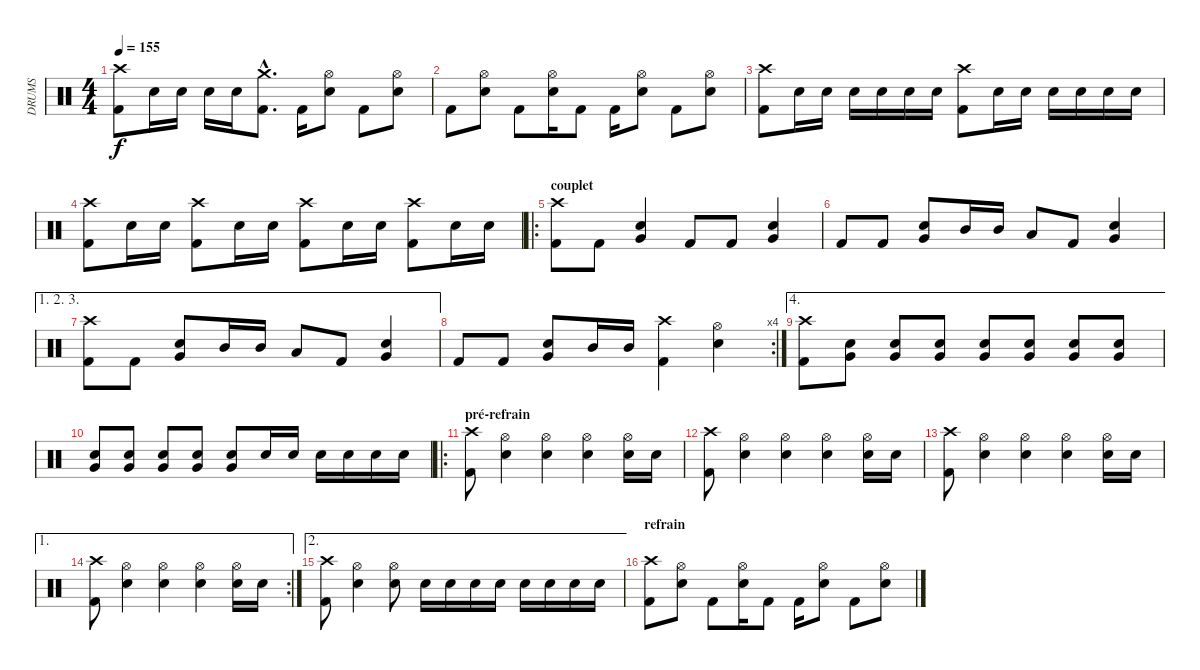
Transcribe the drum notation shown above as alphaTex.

\track ("DRUMS" "DRUMS") {instrument percussion}
\staff {score}
\articulation defaults
\ts (4 4)
\tempo 155
\clef neutral
\ks c
("Crash high (hit)" "Kick (hit) 2").8{dy f} "Electric Snare (hit)".16 "Electric Snare (hit)".16 "Electric Snare (hit)".16 "Electric Snare (hit)".16 ("Crash medium (hit)"{hac} "Kick (hit) 2"{hac}).8{d} "Kick (hit) 2".16 ("Hi-Hat (open)" "Electric Snare (hit)").8 "Kick (hit) 2".8 ("Hi-Hat (open)" "Electric Snare (hit)").8 |
"Kick (hit) 2".8 ("Hi-Hat (open)" "Electric Snare (hit)").8 "Kick (hit) 2".8 ("Hi-Hat (open)" "Electric Snare (hit)").16 "Kick (hit) 2".8 "Kick (hit) 2".16 ("Hi-Hat (open)" "Electric Snare (hit)").8 "Kick (hit) 2".8 ("Hi-Hat (open)" "Electric Snare (hit)").8 |
("Crash high (hit)" "Kick (hit) 2").8 "Electric Snare (hit)".16 "Electric Snare (hit)".16 "Electric Snare (hit)".16 "Electric Snare (hit)".16 "Electric Snare (hit)".16 "Electric Snare (hit)".16 ("Crash high (hit)" "Kick (hit) 2").8 "Electric Snare (hit)".16 "Electric Snare (hit)".16 "Electric Snare (hit)".16 "Electric Snare (hit)".16 "Electric Snare (hit)".16 "Electric Snare (hit)".16 |
("Crash high (hit)" "Kick (hit) 2").8 "Electric Snare (hit)".16 "Electric Snare (hit)".16 ("Crash high (hit)" "Kick (hit) 2").8 "Electric Snare (hit)".16 "Electric Snare (hit)".16 ("Crash high (hit)" "Kick (hit) 2").8 "Electric Snare (hit)".16 "Electric Snare (hit)".16 ("Crash high (hit)" "Kick (hit) 2").8 "Electric Snare (hit)".16 "Electric Snare (hit)".16 |
\ro
\section ("" "couplet")
("Crash high (hit)" "Kick (hit) 2").8 "Kick (hit) 2".8 ("Very Low Tom (hit)" "Electric Snare (hit)").4 "Kick (hit) 2".8 "Kick (hit) 2".8 ("Very Low Tom (hit)" "Electric Snare (hit)").4 |
"Kick (hit) 2".8 "Kick (hit) 2".8 ("Very Low Tom (hit)" "Electric Snare (hit)").8 "Mid Tom (hit)".16 "Mid Tom (hit)".16 "Low Tom (hit)".8 "Kick (hit) 2".8 ("Electric Snare (hit)" "Very Low Tom (hit)").4 |
\ae (1 2 3)
("Crash high (hit)" "Kick (hit) 2").8 "Kick (hit) 2".8 ("Very Low Tom (hit)" "Electric Snare (hit)").8 "Mid Tom (hit)".16 "Mid Tom (hit)".16 "Low Tom (hit)".8 "Kick (hit) 2".8 ("Very Low Tom (hit)" "Electric Snare (hit)").4 |
\rc 4 "Kick (hit) 2".8 "Kick (hit) 2".8
("Very Low Tom (hit)" "Electric Snare (hit)").8 "Mid Tom (hit)".16 "Mid Tom (hit)".16 ("Crash high (hit)" "Kick (hit) 2").4 ("Hi-Hat (open)" "Electric Snare (hit)").4 |
\ae 4
("Crash high (hit)" "Kick (hit) 2").8 ("Very Low Tom (hit)" "Electric Snare (hit)").8 ("Very Low Tom (hit)" "Electric Snare (hit)").8 ("Very Low Tom (hit)" "Electric Snare (hit)").8 ("Very Low Tom (hit)" "Electric Snare (hit)").8 ("Very Low Tom (hit)" "Electric Snare (hit)").8 ("Very Low Tom (hit)" "Electric Snare (hit)").8 ("Very Low Tom (hit)" "Electric Snare (hit)").8 |
("Very Low Tom (hit)" "Electric Snare (hit)").8 ("Very Low Tom (hit)" "Electric Snare (hit)").8 ("Very Low Tom (hit)" "Electric Snare (hit)").8 ("Very Low Tom (hit)" "Electric Snare (hit)").8 ("Very Low Tom (hit)" "Electric Snare (hit)").8 "Electric Snare (hit)".16 "Electric Snare (hit)".16 "Electric Snare (hit)".16 "Electric Snare (hit)".16 "Electric Snare (hit)".16 "Electric Snare (hit)".16 |
\ro
\section ("" "pré-refrain")
("Crash high (hit)" "Kick (hit) 2").8 ("Hi-Hat (open)" "Electric Snare (hit)").4 ("Hi-Hat (open)" "Electric Snare (hit)").4 ("Hi-Hat (open)" "Electric Snare (hit)").4 ("Hi-Hat (open)" "Electric Snare (hit)").16 "Electric Snare (hit)".16 |
("Crash high (hit)" "Kick (hit) 2").8 ("Hi-Hat (open)" "Electric Snare (hit)").4 ("Hi-Hat (open)" "Electric Snare (hit)").4 ("Hi-Hat (open)" "Electric Snare (hit)").4 ("Hi-Hat (open)" "Electric Snare (hit)").16 "Electric Snare (hit)".16 |
("Crash high (hit)" "Kick (hit) 2").8 ("Hi-Hat (open)" "Electric Snare (hit)").4 ("Hi-Hat (open)" "Electric Snare (hit)").4 ("Hi-Hat (open)" "Electric Snare (hit)").4 ("Hi-Hat (open)" "Electric Snare (hit)").16 "Electric Snare (hit)".16 |
\ae 1
\rc 2
("Crash high (hit)" "Kick (hit) 2").8 ("Hi-Hat (open)" "Electric Snare (hit)").4 ("Hi-Hat (open)" "Electric Snare (hit)").4 ("Hi-Hat (open)" "Electric Snare (hit)").4 ("Hi-Hat (open)" "Electric Snare (hit)").16 "Electric Snare (hit)".16 |
\ae 2
("Crash high (hit)" "Kick (hit) 2").8 ("Hi-Hat (open)" "Electric Snare (hit)").4 ("Hi-Hat (open)" "Electric Snare (hit)").8 "Electric Snare (hit)".16 "Electric Snare (hit)".16 "Electric Snare (hit)".16 "Electric Snare (hit)".16 "Electric Snare (hit)".16 "Electric Snare (hit)".16 "Electric Snare (hit)".16 "Electric Snare (hit)".16 |
\section ("" "refrain")
("Crash high (hit)" "Kick (hit) 2").8 ("Hi-Hat (open)" "Electric Snare (hit)").8 "Kick (hit) 2".8 ("Hi-Hat (open)" "Electric Snare (hit)").16 "Kick (hit) 2".8 "Kick (hit) 2".16 ("Hi-Hat (open)" "Electric Snare (hit)").8 "Kick (hit) 2".8 ("Hi-Hat (open)" "Electric Snare (hit)").8
